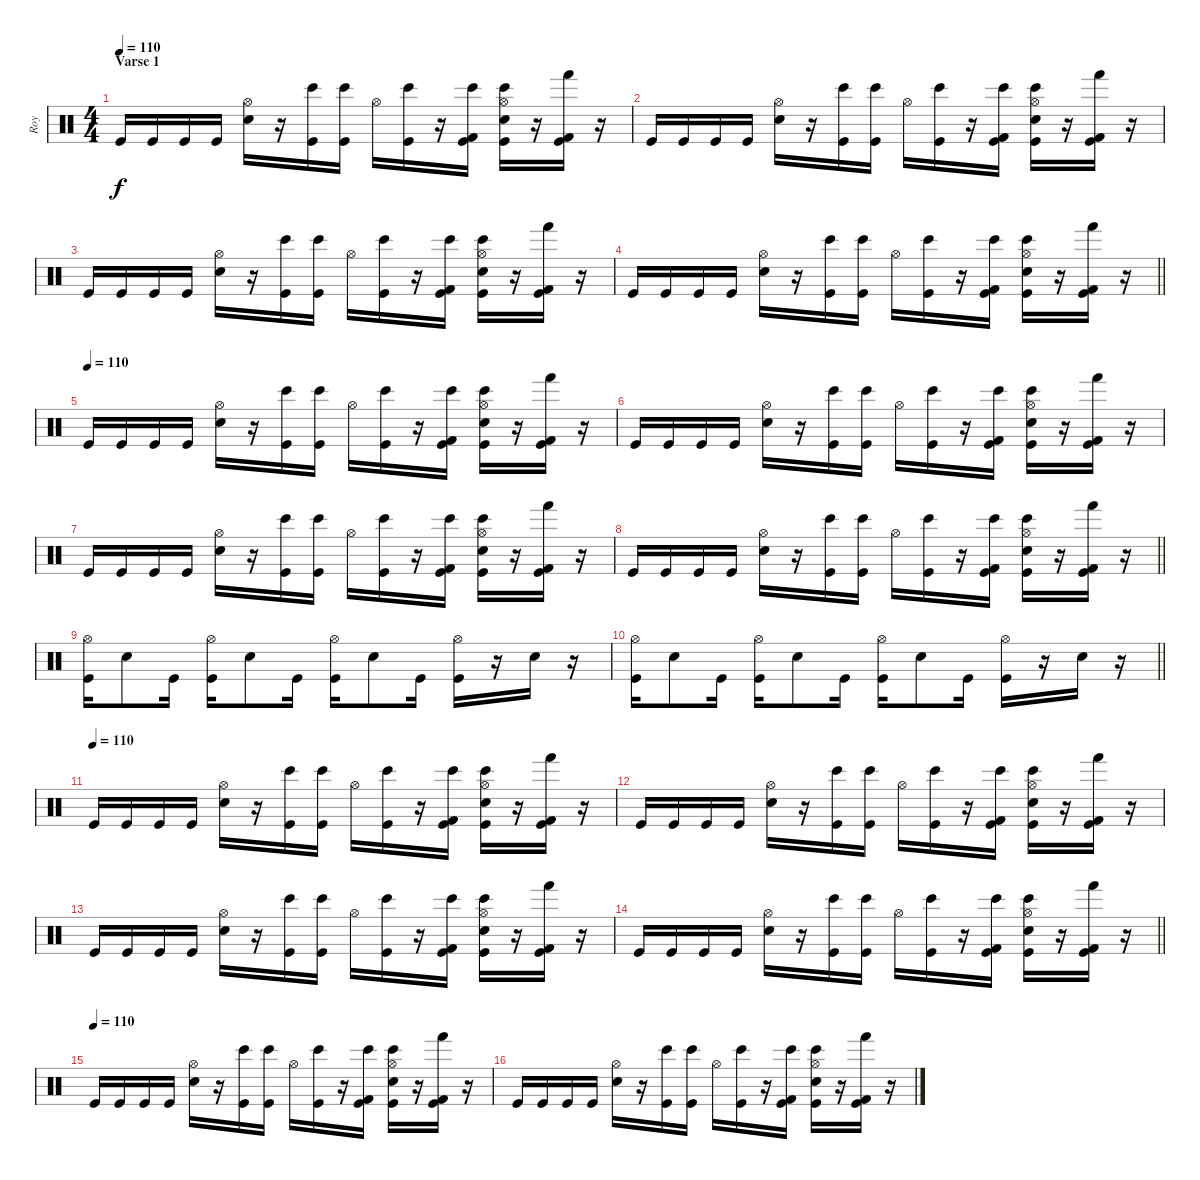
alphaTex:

\track ("Roy" "Roy") {instrument percussion}
\staff {score}
\articulation defaults
\ts (4 4)
\section ("" "Varse 1")
\tempo 110
\clef neutral
\ks c "Kick (hit)".16{dy f} "Kick (hit)".16 "Kick (hit)".16 "Kick (hit)".16
("Hi-Hat (open)" "Electric Snare (hit)").16 r.16 ("Bongo High (hit)" "Kick (hit)").16 ("Bongo High (hit)" "Kick (hit)").16 "Hi-Hat (open)".16 ("Bongo High (hit)" "Kick (hit)").16 r.16 ("Kick (hit) 2" "Bongo High (hit)" "Kick (hit)").16 ("Hi-Hat (open)" "Electric Snare (hit)" "Bongo High (hit)" "Kick (hit)").16 r.16 ("Kick (hit) 2" "Hand (hit)" "Kick (hit)").16 r.16 |
"Kick (hit)".16 "Kick (hit)".16 "Kick (hit)".16 "Kick (hit)".16 ("Hi-Hat (open)" "Electric Snare (hit)").16 r.16 ("Bongo High (hit)" "Kick (hit)").16 ("Bongo High (hit)" "Kick (hit)").16 "Hi-Hat (open)".16 ("Bongo High (hit)" "Kick (hit)").16 r.16 ("Kick (hit) 2" "Bongo High (hit)" "Kick (hit)").16 ("Hi-Hat (open)" "Electric Snare (hit)" "Bongo High (hit)" "Kick (hit)").16 r.16 ("Kick (hit) 2" "Hand (hit)" "Kick (hit)").16 r.16 |
"Kick (hit)".16 "Kick (hit)".16 "Kick (hit)".16 "Kick (hit)".16 ("Hi-Hat (open)" "Electric Snare (hit)").16 r.16 ("Bongo High (hit)" "Kick (hit)").16 ("Bongo High (hit)" "Kick (hit)").16 "Hi-Hat (open)".16 ("Bongo High (hit)" "Kick (hit)").16 r.16 ("Kick (hit) 2" "Bongo High (hit)" "Kick (hit)").16 ("Hi-Hat (open)" "Electric Snare (hit)" "Bongo High (hit)" "Kick (hit)").16 r.16 ("Kick (hit) 2" "Hand (hit)" "Kick (hit)").16 r.16 |
\barLineRight lightlight "Kick (hit)".16 "Kick (hit)".16 "Kick (hit)".16 "Kick (hit)".16
("Hi-Hat (open)" "Electric Snare (hit)").16 r.16 ("Bongo High (hit)" "Kick (hit)").16 ("Bongo High (hit)" "Kick (hit)").16 "Hi-Hat (open)".16 ("Bongo High (hit)" "Kick (hit)").16 r.16 ("Kick (hit) 2" "Bongo High (hit)" "Kick (hit)").16 ("Hi-Hat (open)" "Electric Snare (hit)" "Bongo High (hit)" "Kick (hit)").16 r.16 ("Kick (hit) 2" "Hand (hit)" "Kick (hit)").16 r.16 |
\tempo (110)
"Kick (hit)".16 "Kick (hit)".16 "Kick (hit)".16 "Kick (hit)".16 ("Hi-Hat (open)" "Electric Snare (hit)").16 r.16 ("Bongo High (hit)" "Kick (hit)").16 ("Bongo High (hit)" "Kick (hit)").16 "Hi-Hat (open)".16 ("Bongo High (hit)" "Kick (hit)").16 r.16 ("Kick (hit) 2" "Bongo High (hit)" "Kick (hit)").16 ("Hi-Hat (open)" "Electric Snare (hit)" "Bongo High (hit)" "Kick (hit)").16 r.16 ("Kick (hit) 2" "Hand (hit)" "Kick (hit)").16 r.16 |
"Kick (hit)".16 "Kick (hit)".16 "Kick (hit)".16 "Kick (hit)".16 ("Hi-Hat (open)" "Electric Snare (hit)").16 r.16 ("Bongo High (hit)" "Kick (hit)").16 ("Bongo High (hit)" "Kick (hit)").16 "Hi-Hat (open)".16 ("Bongo High (hit)" "Kick (hit)").16 r.16 ("Kick (hit) 2" "Bongo High (hit)" "Kick (hit)").16 ("Hi-Hat (open)" "Electric Snare (hit)" "Bongo High (hit)" "Kick (hit)").16 r.16 ("Kick (hit) 2" "Hand (hit)" "Kick (hit)").16 r.16 |
"Kick (hit)".16 "Kick (hit)".16 "Kick (hit)".16 "Kick (hit)".16 ("Hi-Hat (open)" "Electric Snare (hit)").16 r.16 ("Bongo High (hit)" "Kick (hit)").16 ("Bongo High (hit)" "Kick (hit)").16 "Hi-Hat (open)".16 ("Bongo High (hit)" "Kick (hit)").16 r.16 ("Kick (hit) 2" "Bongo High (hit)" "Kick (hit)").16 ("Hi-Hat (open)" "Electric Snare (hit)" "Bongo High (hit)" "Kick (hit)").16 r.16 ("Kick (hit) 2" "Hand (hit)" "Kick (hit)").16 r.16 |
\barLineRight lightlight "Kick (hit)".16 "Kick (hit)".16 "Kick (hit)".16 "Kick (hit)".16
("Hi-Hat (open)" "Electric Snare (hit)").16 r.16 ("Bongo High (hit)" "Kick (hit)").16 ("Bongo High (hit)" "Kick (hit)").16 "Hi-Hat (open)".16 ("Bongo High (hit)" "Kick (hit)").16 r.16 ("Kick (hit) 2" "Bongo High (hit)" "Kick (hit)").16 ("Hi-Hat (open)" "Electric Snare (hit)" "Bongo High (hit)" "Kick (hit)").16 r.16 ("Kick (hit) 2" "Hand (hit)" "Kick (hit)").16 r.16 |
\section ("" "")
("Hi-Hat (open)" "Kick (hit)").16 "Electric Snare (hit)".8 "Kick (hit)".16 ("Hi-Hat (open)" "Kick (hit)").16 "Electric Snare (hit)".8 "Kick (hit)".16 ("Hi-Hat (open)" "Kick (hit)").16 "Electric Snare (hit)".8 "Kick (hit)".16 ("Hi-Hat (open)" "Kick (hit)").16 r.16 "Electric Snare (hit)".16 r.16 |
\barLineRight lightlight
("Hi-Hat (open)" "Kick (hit)").16 "Electric Snare (hit)".8 "Kick (hit)".16 ("Hi-Hat (open)" "Kick (hit)").16 "Electric Snare (hit)".8 "Kick (hit)".16 ("Hi-Hat (open)" "Kick (hit)").16 "Electric Snare (hit)".8 "Kick (hit)".16 ("Hi-Hat (open)" "Kick (hit)").16 r.16 "Electric Snare (hit)".16 r.16 |
\section ("" "")
\tempo (110)
"Kick (hit)".16 "Kick (hit)".16 "Kick (hit)".16 "Kick (hit)".16 ("Hi-Hat (open)" "Electric Snare (hit)").16 r.16 ("Bongo High (hit)" "Kick (hit)").16 ("Bongo High (hit)" "Kick (hit)").16 "Hi-Hat (open)".16 ("Bongo High (hit)" "Kick (hit)").16 r.16 ("Kick (hit) 2" "Bongo High (hit)" "Kick (hit)").16 ("Hi-Hat (open)" "Electric Snare (hit)" "Bongo High (hit)" "Kick (hit)").16 r.16 ("Kick (hit) 2" "Hand (hit)" "Kick (hit)").16 r.16 |
"Kick (hit)".16 "Kick (hit)".16 "Kick (hit)".16 "Kick (hit)".16 ("Hi-Hat (open)" "Electric Snare (hit)").16 r.16 ("Bongo High (hit)" "Kick (hit)").16 ("Bongo High (hit)" "Kick (hit)").16 "Hi-Hat (open)".16 ("Bongo High (hit)" "Kick (hit)").16 r.16 ("Kick (hit) 2" "Bongo High (hit)" "Kick (hit)").16 ("Hi-Hat (open)" "Electric Snare (hit)" "Bongo High (hit)" "Kick (hit)").16 r.16 ("Kick (hit) 2" "Hand (hit)" "Kick (hit)").16 r.16 |
"Kick (hit)".16 "Kick (hit)".16 "Kick (hit)".16 "Kick (hit)".16 ("Hi-Hat (open)" "Electric Snare (hit)").16 r.16 ("Bongo High (hit)" "Kick (hit)").16 ("Bongo High (hit)" "Kick (hit)").16 "Hi-Hat (open)".16 ("Bongo High (hit)" "Kick (hit)").16 r.16 ("Kick (hit) 2" "Bongo High (hit)" "Kick (hit)").16 ("Hi-Hat (open)" "Electric Snare (hit)" "Bongo High (hit)" "Kick (hit)").16 r.16 ("Kick (hit) 2" "Hand (hit)" "Kick (hit)").16 r.16 |
\barLineRight lightlight "Kick (hit)".16 "Kick (hit)".16 "Kick (hit)".16 "Kick (hit)".16
("Hi-Hat (open)" "Electric Snare (hit)").16 r.16 ("Bongo High (hit)" "Kick (hit)").16 ("Bongo High (hit)" "Kick (hit)").16 "Hi-Hat (open)".16 ("Bongo High (hit)" "Kick (hit)").16 r.16 ("Kick (hit) 2" "Bongo High (hit)" "Kick (hit)").16 ("Hi-Hat (open)" "Electric Snare (hit)" "Bongo High (hit)" "Kick (hit)").16 r.16 ("Kick (hit) 2" "Hand (hit)" "Kick (hit)").16 r.16 |
\tempo (110)
"Kick (hit)".16 "Kick (hit)".16 "Kick (hit)".16 "Kick (hit)".16 ("Hi-Hat (open)" "Electric Snare (hit)").16 r.16 ("Bongo High (hit)" "Kick (hit)").16 ("Bongo High (hit)" "Kick (hit)").16 "Hi-Hat (open)".16 ("Bongo High (hit)" "Kick (hit)").16 r.16 ("Kick (hit) 2" "Bongo High (hit)" "Kick (hit)").16 ("Hi-Hat (open)" "Electric Snare (hit)" "Bongo High (hit)" "Kick (hit)").16 r.16 ("Kick (hit) 2" "Hand (hit)" "Kick (hit)").16 r.16 |
"Kick (hit)".16 "Kick (hit)".16 "Kick (hit)".16 "Kick (hit)".16 ("Hi-Hat (open)" "Electric Snare (hit)").16 r.16 ("Bongo High (hit)" "Kick (hit)").16 ("Bongo High (hit)" "Kick (hit)").16 "Hi-Hat (open)".16 ("Bongo High (hit)" "Kick (hit)").16 r.16 ("Kick (hit) 2" "Bongo High (hit)" "Kick (hit)").16 ("Hi-Hat (open)" "Electric Snare (hit)" "Bongo High (hit)" "Kick (hit)").16 r.16 ("Kick (hit) 2" "Hand (hit)" "Kick (hit)").16 r.16
